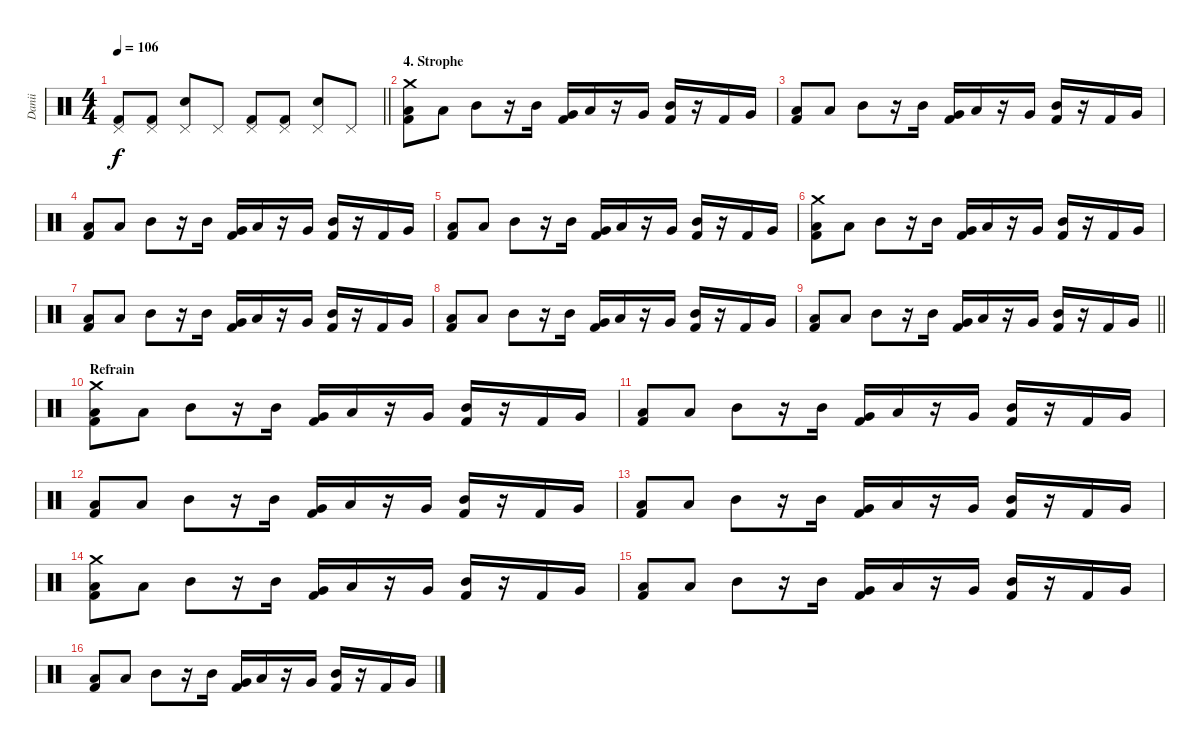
\track ("Danii" "Danii") {instrument percussion}
\staff {score}
\articulation defaults
\ts (4 4)
\tempo 106
\clef neutral
\barLineRight lightlight
\ks c
("Pedal Hi-Hat (hit)" "Kick (hit) 2").8{dy f} ("Pedal Hi-Hat (hit)" "Kick (hit) 2").8 ("Pedal Hi-Hat (hit)" "Snare (hit) 2").8 "Pedal Hi-Hat (hit)".8 ("Pedal Hi-Hat (hit)" "Kick (hit) 2").8 ("Pedal Hi-Hat (hit)" "Kick (hit) 2").8 ("Pedal Hi-Hat (hit)" "Snare (hit) 2").8 "Pedal Hi-Hat (hit)".8 |
\section ("" "4. Strophe")
("Low Floor Tom (hit)" "Kick (hit) 2" "Crash medium (hit)").8 "Low Floor Tom (hit)".8 "Mid Tom (hit)".8 r.16 "Mid Tom (hit)".16 ("Very Low Tom (hit)" "Kick (hit) 2").16 "Low Tom (hit)".16 r.16 "Very Low Tom (hit)".16 ("Mid Tom (hit)" "Kick (hit) 2").16 r.16 "Kick (hit) 2".16 "Very Low Tom (hit)".16 |
("Low Floor Tom (hit)" "Kick (hit) 2").8 "Low Floor Tom (hit)".8 "Mid Tom (hit)".8 r.16 "Mid Tom (hit)".16 ("Very Low Tom (hit)" "Kick (hit) 2").16 "Low Tom (hit)".16 r.16 "Very Low Tom (hit)".16 ("Mid Tom (hit)" "Kick (hit) 2").16 r.16 "Kick (hit) 2".16 "Very Low Tom (hit)".16 |
("Low Floor Tom (hit)" "Kick (hit) 2").8 "Low Floor Tom (hit)".8 "Mid Tom (hit)".8 r.16 "Mid Tom (hit)".16 ("Very Low Tom (hit)" "Kick (hit) 2").16 "Low Tom (hit)".16 r.16 "Very Low Tom (hit)".16 ("Mid Tom (hit)" "Kick (hit) 2").16 r.16 "Kick (hit) 2".16 "Very Low Tom (hit)".16 |
("Low Floor Tom (hit)" "Kick (hit) 2").8 "Low Floor Tom (hit)".8 "Mid Tom (hit)".8 r.16 "Mid Tom (hit)".16 ("Very Low Tom (hit)" "Kick (hit) 2").16 "Low Tom (hit)".16 r.16 "Very Low Tom (hit)".16 ("Mid Tom (hit)" "Kick (hit) 2").16 r.16 "Kick (hit) 2".16 "Very Low Tom (hit)".16 |
("Low Floor Tom (hit)" "Kick (hit) 2" "Crash medium (hit)").8 "Low Floor Tom (hit)".8 "Mid Tom (hit)".8 r.16 "Mid Tom (hit)".16 ("Very Low Tom (hit)" "Kick (hit) 2").16 "Low Tom (hit)".16 r.16 "Very Low Tom (hit)".16 ("Mid Tom (hit)" "Kick (hit) 2").16 r.16 "Kick (hit) 2".16 "Very Low Tom (hit)".16 |
("Low Floor Tom (hit)" "Kick (hit) 2").8 "Low Floor Tom (hit)".8 "Mid Tom (hit)".8 r.16 "Mid Tom (hit)".16 ("Very Low Tom (hit)" "Kick (hit) 2").16 "Low Tom (hit)".16 r.16 "Very Low Tom (hit)".16 ("Mid Tom (hit)" "Kick (hit) 2").16 r.16 "Kick (hit) 2".16 "Very Low Tom (hit)".16 |
("Low Floor Tom (hit)" "Kick (hit) 2").8 "Low Floor Tom (hit)".8 "Mid Tom (hit)".8 r.16 "Mid Tom (hit)".16 ("Very Low Tom (hit)" "Kick (hit) 2").16 "Low Tom (hit)".16 r.16 "Very Low Tom (hit)".16 ("Mid Tom (hit)" "Kick (hit) 2").16 r.16 "Kick (hit) 2".16 "Very Low Tom (hit)".16 |
\barLineRight lightlight
("Low Floor Tom (hit)" "Kick (hit) 2").8 "Low Floor Tom (hit)".8 "Mid Tom (hit)".8 r.16 "Mid Tom (hit)".16 ("Very Low Tom (hit)" "Kick (hit) 2").16 "Low Tom (hit)".16 r.16 "Very Low Tom (hit)".16 ("Mid Tom (hit)" "Kick (hit) 2").16 r.16 "Kick (hit) 2".16 "Very Low Tom (hit)".16 |
\section ("" "Refrain")
("Low Floor Tom (hit)" "Kick (hit) 2" "Crash medium (hit)").8 "Low Floor Tom (hit)".8 "Mid Tom (hit)".8 r.16 "Mid Tom (hit)".16 ("Very Low Tom (hit)" "Kick (hit) 2").16 "Low Tom (hit)".16 r.16 "Very Low Tom (hit)".16 ("Mid Tom (hit)" "Kick (hit) 2").16 r.16 "Kick (hit) 2".16 "Very Low Tom (hit)".16 |
("Low Floor Tom (hit)" "Kick (hit) 2").8 "Low Floor Tom (hit)".8 "Mid Tom (hit)".8 r.16 "Mid Tom (hit)".16 ("Very Low Tom (hit)" "Kick (hit) 2").16 "Low Tom (hit)".16 r.16 "Very Low Tom (hit)".16 ("Mid Tom (hit)" "Kick (hit) 2").16 r.16 "Kick (hit) 2".16 "Very Low Tom (hit)".16 |
("Low Floor Tom (hit)" "Kick (hit) 2").8 "Low Floor Tom (hit)".8 "Mid Tom (hit)".8 r.16 "Mid Tom (hit)".16 ("Very Low Tom (hit)" "Kick (hit) 2").16 "Low Tom (hit)".16 r.16 "Very Low Tom (hit)".16 ("Mid Tom (hit)" "Kick (hit) 2").16 r.16 "Kick (hit) 2".16 "Very Low Tom (hit)".16 |
("Low Floor Tom (hit)" "Kick (hit) 2").8 "Low Floor Tom (hit)".8 "Mid Tom (hit)".8 r.16 "Mid Tom (hit)".16 ("Very Low Tom (hit)" "Kick (hit) 2").16 "Low Tom (hit)".16 r.16 "Very Low Tom (hit)".16 ("Mid Tom (hit)" "Kick (hit) 2").16 r.16 "Kick (hit) 2".16 "Very Low Tom (hit)".16 |
("Low Floor Tom (hit)" "Kick (hit) 2" "Crash medium (hit)").8 "Low Floor Tom (hit)".8 "Mid Tom (hit)".8 r.16 "Mid Tom (hit)".16 ("Very Low Tom (hit)" "Kick (hit) 2").16 "Low Tom (hit)".16 r.16 "Very Low Tom (hit)".16 ("Mid Tom (hit)" "Kick (hit) 2").16 r.16 "Kick (hit) 2".16 "Very Low Tom (hit)".16 |
("Low Floor Tom (hit)" "Kick (hit) 2").8 "Low Floor Tom (hit)".8 "Mid Tom (hit)".8 r.16 "Mid Tom (hit)".16 ("Very Low Tom (hit)" "Kick (hit) 2").16 "Low Tom (hit)".16 r.16 "Very Low Tom (hit)".16 ("Mid Tom (hit)" "Kick (hit) 2").16 r.16 "Kick (hit) 2".16 "Very Low Tom (hit)".16 |
("Low Floor Tom (hit)" "Kick (hit) 2").8 "Low Floor Tom (hit)".8 "Mid Tom (hit)".8 r.16 "Mid Tom (hit)".16 ("Very Low Tom (hit)" "Kick (hit) 2").16 "Low Tom (hit)".16 r.16 "Very Low Tom (hit)".16 ("Mid Tom (hit)" "Kick (hit) 2").16 r.16 "Kick (hit) 2".16 "Very Low Tom (hit)".16
